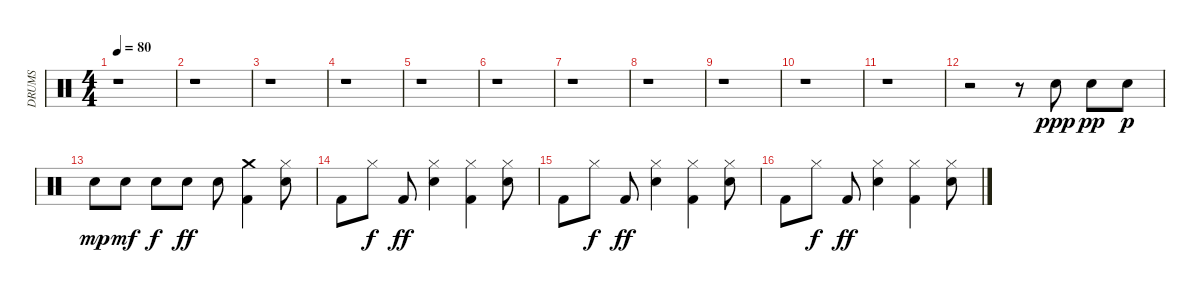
\track ("DRUMS                               " "DRUMS     ") {instrument percussion}
\staff {score}
\articulation defaults
\ts (4 4)
\tempo 80
\clef neutral
\ks c
r.1{dy ff} |
r.1 |
r.1 |
r.1 |
r.1 |
r.1 |
r.1 |
r.1 |
r.1 |
r.1 |
r.1 |
r.2 r.8 "Snare (hit) 2".8{dy ppp} "Snare (hit) 2".8{dy pp} "Snare (hit) 2".8{dy p} |
"Snare (hit) 2".8{dy mp} "Snare (hit) 2".8{dy mf} "Snare (hit) 2".8{dy f} "Snare (hit) 2".8{dy ff} "Snare (hit) 2".8 ("Crash medium (hit)" "Kick (hit) 2").4 ("Snare (hit) 2" "Hi-Hat (closed)").8 |
"Kick (hit) 2".8 "Hi-Hat (closed)".8{dy f} "Kick (hit) 2".8{dy ff} ("Snare (hit) 2" "Hi-Hat (closed)").4 ("Kick (hit) 2" "Hi-Hat (closed)").4 ("Snare (hit) 2" "Hi-Hat (closed)").8 |
"Kick (hit) 2".8 "Hi-Hat (closed)".8{dy f} "Kick (hit) 2".8{dy ff} ("Snare (hit) 2" "Hi-Hat (closed)").4 ("Kick (hit) 2" "Hi-Hat (closed)").4 ("Snare (hit) 2" "Hi-Hat (closed)").8 |
"Kick (hit) 2".8 "Hi-Hat (closed)".8{dy f} "Kick (hit) 2".8{dy ff} ("Snare (hit) 2" "Hi-Hat (closed)").4 ("Kick (hit) 2" "Hi-Hat (closed)").4 ("Snare (hit) 2" "Hi-Hat (closed)").8
